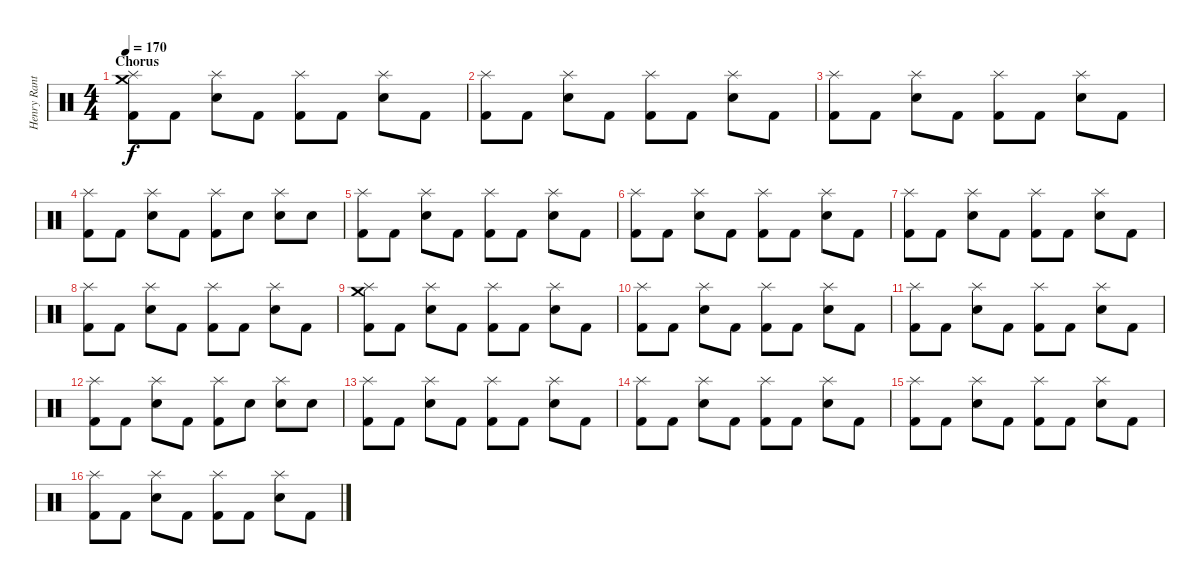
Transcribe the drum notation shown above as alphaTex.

\track ("Henry Ranta -Drums-" "Henry Rant") {instrument percussion}
\staff {score}
\articulation defaults
\ts (4 4)
\section ("" "Chorus")
\tempo 170
\clef neutral
\ks c
("Splash (hit)" "Crash medium (hit)" "Kick (hit) 2").8{dy f} "Kick (hit) 2".8 ("Splash (hit)" "Snare (hit) 2").8 "Kick (hit) 2".8 ("Splash (hit)" "Kick (hit) 2").8 "Kick (hit) 2".8 ("Splash (hit)" "Snare (hit) 2").8 "Kick (hit) 2".8 |
("Splash (hit)" "Kick (hit) 2").8 "Kick (hit) 2".8 ("Splash (hit)" "Snare (hit) 2").8 "Kick (hit) 2".8 ("Splash (hit)" "Kick (hit) 2").8 "Kick (hit) 2".8 ("Splash (hit)" "Snare (hit) 2").8 "Kick (hit) 2".8 |
("Splash (hit)" "Kick (hit) 2").8 "Kick (hit) 2".8 ("Splash (hit)" "Snare (hit) 2").8 "Kick (hit) 2".8 ("Splash (hit)" "Kick (hit) 2").8 "Kick (hit) 2".8 ("Splash (hit)" "Snare (hit) 2").8 "Kick (hit) 2".8 |
("Splash (hit)" "Kick (hit) 2").8 "Kick (hit) 2".8 ("Splash (hit)" "Snare (hit) 2").8 "Kick (hit) 2".8 ("Splash (hit)" "Kick (hit) 2").8 "Snare (hit) 2".8 ("Splash (hit)" "Snare (hit) 2").8 "Snare (hit) 2".8 |
("Splash (hit)" "Kick (hit) 2").8 "Kick (hit) 2".8 ("Splash (hit)" "Snare (hit) 2").8 "Kick (hit) 2".8 ("Splash (hit)" "Kick (hit) 2").8 "Kick (hit) 2".8 ("Splash (hit)" "Snare (hit) 2").8 "Kick (hit) 2".8 |
("Splash (hit)" "Kick (hit) 2").8 "Kick (hit) 2".8 ("Splash (hit)" "Snare (hit) 2").8 "Kick (hit) 2".8 ("Splash (hit)" "Kick (hit) 2").8 "Kick (hit) 2".8 ("Splash (hit)" "Snare (hit) 2").8 "Kick (hit) 2".8 |
("Splash (hit)" "Kick (hit) 2").8 "Kick (hit) 2".8 ("Splash (hit)" "Snare (hit) 2").8 "Kick (hit) 2".8 ("Splash (hit)" "Kick (hit) 2").8 "Kick (hit) 2".8 ("Splash (hit)" "Snare (hit) 2").8 "Kick (hit) 2".8 |
("Splash (hit)" "Kick (hit) 2").8 "Kick (hit) 2".8 ("Splash (hit)" "Snare (hit) 2").8 "Kick (hit) 2".8 ("Splash (hit)" "Kick (hit) 2").8 "Kick (hit) 2".8 ("Splash (hit)" "Snare (hit) 2").8 "Kick (hit) 2".8 |
("Splash (hit)" "Crash medium (hit)" "Kick (hit) 2").8 "Kick (hit) 2".8 ("Splash (hit)" "Snare (hit) 2").8 "Kick (hit) 2".8 ("Splash (hit)" "Kick (hit) 2").8 "Kick (hit) 2".8 ("Splash (hit)" "Snare (hit) 2").8 "Kick (hit) 2".8 |
("Splash (hit)" "Kick (hit) 2").8 "Kick (hit) 2".8 ("Splash (hit)" "Snare (hit) 2").8 "Kick (hit) 2".8 ("Splash (hit)" "Kick (hit) 2").8 "Kick (hit) 2".8 ("Splash (hit)" "Snare (hit) 2").8 "Kick (hit) 2".8 |
("Splash (hit)" "Kick (hit) 2").8 "Kick (hit) 2".8 ("Splash (hit)" "Snare (hit) 2").8 "Kick (hit) 2".8 ("Splash (hit)" "Kick (hit) 2").8 "Kick (hit) 2".8 ("Splash (hit)" "Snare (hit) 2").8 "Kick (hit) 2".8 |
("Splash (hit)" "Kick (hit) 2").8 "Kick (hit) 2".8 ("Splash (hit)" "Snare (hit) 2").8 "Kick (hit) 2".8 ("Splash (hit)" "Kick (hit) 2").8 "Snare (hit) 2".8 ("Splash (hit)" "Snare (hit) 2").8 "Snare (hit) 2".8 |
("Splash (hit)" "Kick (hit) 2").8 "Kick (hit) 2".8 ("Splash (hit)" "Snare (hit) 2").8 "Kick (hit) 2".8 ("Splash (hit)" "Kick (hit) 2").8 "Kick (hit) 2".8 ("Splash (hit)" "Snare (hit) 2").8 "Kick (hit) 2".8 |
("Splash (hit)" "Kick (hit) 2").8 "Kick (hit) 2".8 ("Splash (hit)" "Snare (hit) 2").8 "Kick (hit) 2".8 ("Splash (hit)" "Kick (hit) 2").8 "Kick (hit) 2".8 ("Splash (hit)" "Snare (hit) 2").8 "Kick (hit) 2".8 |
("Splash (hit)" "Kick (hit) 2").8 "Kick (hit) 2".8 ("Splash (hit)" "Snare (hit) 2").8 "Kick (hit) 2".8 ("Splash (hit)" "Kick (hit) 2").8 "Kick (hit) 2".8 ("Splash (hit)" "Snare (hit) 2").8 "Kick (hit) 2".8 |
("Splash (hit)" "Kick (hit) 2").8 "Kick (hit) 2".8 ("Splash (hit)" "Snare (hit) 2").8 "Kick (hit) 2".8 ("Splash (hit)" "Kick (hit) 2").8 "Kick (hit) 2".8 ("Splash (hit)" "Snare (hit) 2").8 "Kick (hit) 2".8
